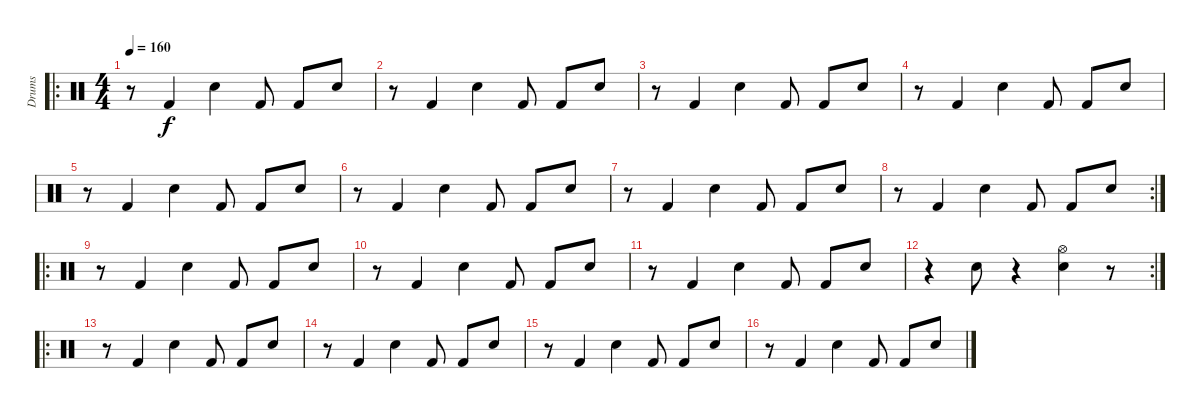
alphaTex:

\track ("Drums" "Drums") {instrument percussion}
\staff {score}
\articulation defaults
\ro
\ts (4 4)
\tempo 160
\clef neutral
\ks c
r.8{dy f} "Kick (hit) 2".4 "Snare (hit) 2".4 "Kick (hit) 2".8 "Kick (hit) 2".8 "Snare (hit) 2".8 |
r.8 "Kick (hit) 2".4 "Snare (hit) 2".4 "Kick (hit) 2".8 "Kick (hit) 2".8 "Snare (hit) 2".8 |
r.8 "Kick (hit) 2".4 "Snare (hit) 2".4 "Kick (hit) 2".8 "Kick (hit) 2".8 "Snare (hit) 2".8 |
r.8 "Kick (hit) 2".4 "Snare (hit) 2".4 "Kick (hit) 2".8 "Kick (hit) 2".8 "Snare (hit) 2".8 |
r.8 "Kick (hit) 2".4 "Snare (hit) 2".4 "Kick (hit) 2".8 "Kick (hit) 2".8 "Snare (hit) 2".8 |
r.8 "Kick (hit) 2".4 "Snare (hit) 2".4 "Kick (hit) 2".8 "Kick (hit) 2".8 "Snare (hit) 2".8 |
r.8 "Kick (hit) 2".4 "Snare (hit) 2".4 "Kick (hit) 2".8 "Kick (hit) 2".8 "Snare (hit) 2".8 |
\rc 2
r.8 "Kick (hit) 2".4 "Snare (hit) 2".4 "Kick (hit) 2".8 "Kick (hit) 2".8 "Snare (hit) 2".8 |
\ro
r.8 "Kick (hit) 2".4 "Snare (hit) 2".4 "Kick (hit) 2".8 "Kick (hit) 2".8 "Snare (hit) 2".8 |
r.8 "Kick (hit) 2".4 "Snare (hit) 2".4 "Kick (hit) 2".8 "Kick (hit) 2".8 "Snare (hit) 2".8 |
r.8 "Kick (hit) 2".4 "Snare (hit) 2".4 "Kick (hit) 2".8 "Kick (hit) 2".8 "Snare (hit) 2".8 |
\rc 2
r.4 "Snare (hit) 2".8 r.4 ("Snare (hit) 2" "Hi-Hat (open)").4 r.8 |
\ro
r.8 "Kick (hit) 2".4 "Snare (hit) 2".4 "Kick (hit) 2".8 "Kick (hit) 2".8 "Snare (hit) 2".8 |
r.8 "Kick (hit) 2".4 "Snare (hit) 2".4 "Kick (hit) 2".8 "Kick (hit) 2".8 "Snare (hit) 2".8 |
r.8 "Kick (hit) 2".4 "Snare (hit) 2".4 "Kick (hit) 2".8 "Kick (hit) 2".8 "Snare (hit) 2".8 |
r.8 "Kick (hit) 2".4 "Snare (hit) 2".4 "Kick (hit) 2".8 "Kick (hit) 2".8 "Snare (hit) 2".8
